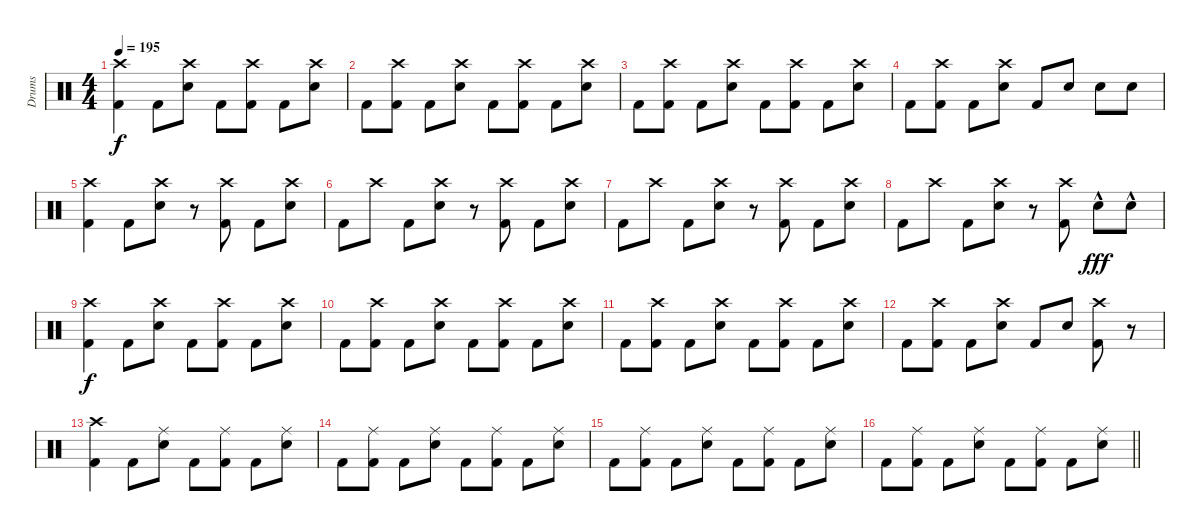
\track ("Drums" "Drums") {instrument percussion}
\staff {score}
\articulation defaults
\ts (4 4)
\tempo 195
\clef neutral
\ks c
("Crash high (hit)" "Kick (hit) 2").4{dy f} "Kick (hit) 2".8 ("Crash high (hit)" "Electric Snare (hit)").8 "Kick (hit) 2".8 ("Crash high (hit)" "Kick (hit) 2").8 "Kick (hit) 2".8 ("Crash high (hit)" "Electric Snare (hit)").8 |
"Kick (hit) 2".8 ("Crash high (hit)" "Kick (hit) 2").8 "Kick (hit) 2".8 ("Crash high (hit)" "Electric Snare (hit)").8 "Kick (hit) 2".8 ("Crash high (hit)" "Kick (hit) 2").8 "Kick (hit) 2".8 ("Crash high (hit)" "Electric Snare (hit)").8 |
"Kick (hit) 2".8 ("Crash high (hit)" "Kick (hit) 2").8 "Kick (hit) 2".8 ("Crash high (hit)" "Electric Snare (hit)").8 "Kick (hit) 2".8 ("Crash high (hit)" "Kick (hit) 2").8 "Kick (hit) 2".8 ("Crash high (hit)" "Electric Snare (hit)").8 |
"Kick (hit) 2".8 ("Crash high (hit)" "Kick (hit) 2").8 "Kick (hit) 2".8 ("Crash high (hit)" "Electric Snare (hit)").8 "Kick (hit) 2".8 "Electric Snare (hit)".8 "Electric Snare (hit)".8 "Electric Snare (hit)".8 |
("Crash high (hit)" "Kick (hit) 2").4 "Kick (hit) 2".8 ("Crash high (hit)" "Electric Snare (hit)").8 r.8 ("Crash high (hit)" "Kick (hit) 2").8 "Kick (hit) 2".8 ("Crash high (hit)" "Electric Snare (hit)").8 |
"Kick (hit) 2".8 "Crash high (hit)".8 "Kick (hit) 2".8 ("Crash high (hit)" "Electric Snare (hit)").8 r.8 ("Crash high (hit)" "Kick (hit) 2").8 "Kick (hit) 2".8 ("Crash high (hit)" "Electric Snare (hit)").8 |
"Kick (hit) 2".8 "Crash high (hit)".8 "Kick (hit) 2".8 ("Crash high (hit)" "Electric Snare (hit)").8 r.8 ("Crash high (hit)" "Kick (hit) 2").8 "Kick (hit) 2".8 ("Crash high (hit)" "Electric Snare (hit)").8 |
"Kick (hit) 2".8 "Crash high (hit)".8 "Kick (hit) 2".8 ("Crash high (hit)" "Electric Snare (hit)").8 r.8 ("Crash high (hit)" "Kick (hit) 2").8 "Electric Snare (hit)"{hac}.8{dy fff} "Electric Snare (hit)"{hac}.8 |
("Crash high (hit)" "Kick (hit) 2").4{dy f} "Kick (hit) 2".8 ("Crash high (hit)" "Electric Snare (hit)").8 "Kick (hit) 2".8 ("Crash high (hit)" "Kick (hit) 2").8 "Kick (hit) 2".8 ("Crash high (hit)" "Electric Snare (hit)").8 |
"Kick (hit) 2".8 ("Crash high (hit)" "Kick (hit) 2").8 "Kick (hit) 2".8 ("Crash high (hit)" "Electric Snare (hit)").8 "Kick (hit) 2".8 ("Crash high (hit)" "Kick (hit) 2").8 "Kick (hit) 2".8 ("Crash high (hit)" "Electric Snare (hit)").8 |
"Kick (hit) 2".8 ("Crash high (hit)" "Kick (hit) 2").8 "Kick (hit) 2".8 ("Crash high (hit)" "Electric Snare (hit)").8 "Kick (hit) 2".8 ("Crash high (hit)" "Kick (hit) 2").8 "Kick (hit) 2".8 ("Crash high (hit)" "Electric Snare (hit)").8 |
"Kick (hit) 2".8 ("Crash high (hit)" "Kick (hit) 2").8 "Kick (hit) 2".8 ("Crash high (hit)" "Electric Snare (hit)").8 "Kick (hit) 2".8 "Electric Snare (hit)".8 ("Crash high (hit)" "Kick (hit) 2").8 r.8 |
("Crash high (hit)" "Kick (hit) 2").4 "Kick (hit) 2".8 ("Ride (middle)" "Electric Snare (hit)").8 "Kick (hit) 2".8 ("Ride (middle)" "Kick (hit) 2").8 "Kick (hit) 2".8 ("Ride (middle)" "Electric Snare (hit)").8 |
"Kick (hit) 2".8 ("Ride (middle)" "Kick (hit) 2").8 "Kick (hit) 2".8 ("Ride (middle)" "Electric Snare (hit)").8 "Kick (hit) 2".8 ("Ride (middle)" "Kick (hit) 2").8 "Kick (hit) 2".8 ("Ride (middle)" "Electric Snare (hit)").8 |
"Kick (hit) 2".8 ("Ride (middle)" "Kick (hit) 2").8 "Kick (hit) 2".8 ("Ride (middle)" "Electric Snare (hit)").8 "Kick (hit) 2".8 ("Ride (middle)" "Kick (hit) 2").8 "Kick (hit) 2".8 ("Ride (middle)" "Electric Snare (hit)").8 |
\barLineRight lightlight "Kick (hit) 2".8
("Ride (middle)" "Kick (hit) 2").8 "Kick (hit) 2".8 ("Ride (middle)" "Electric Snare (hit)").8 "Kick (hit) 2".8 ("Ride (middle)" "Kick (hit) 2").8 "Kick (hit) 2".8 ("Ride (middle)" "Electric Snare (hit)").8
